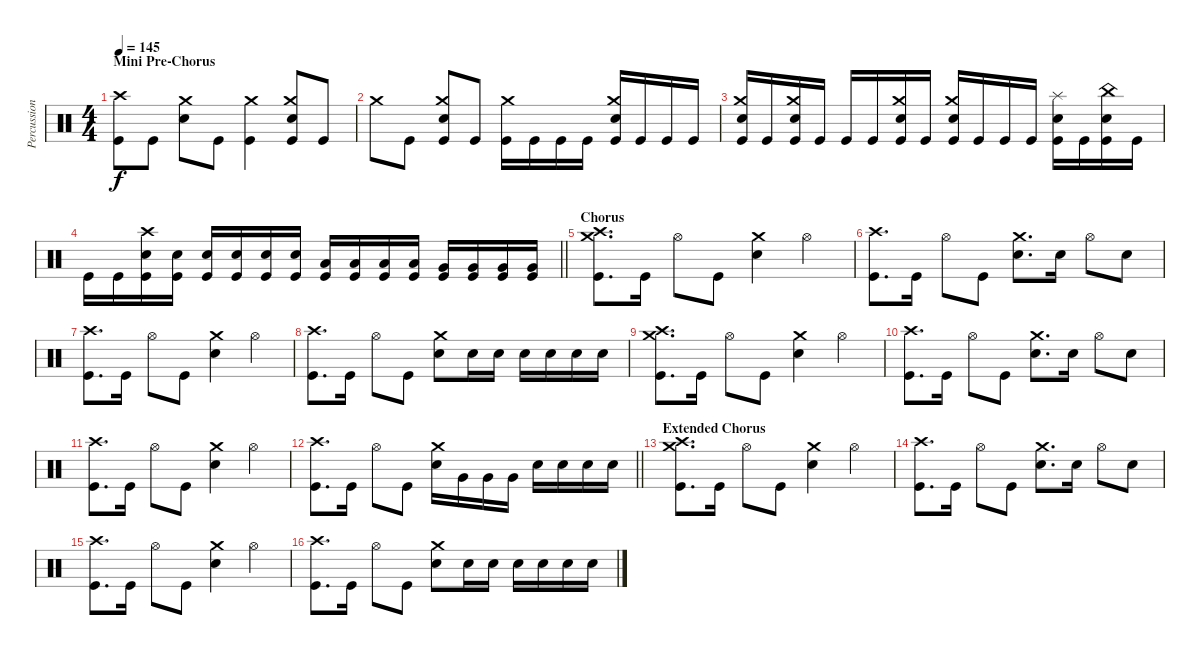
\track ("Percussion" "Percussion") {instrument percussion}
\staff {score}
\articulation defaults
\ts (4 4)
\section ("" "Mini Pre-Chorus")
\tempo 145
\clef neutral
\ks c
("Crash high (hit)" "Kick (hit)").8{dy f} "Kick (hit)".8 ("Crash medium (hit)" "Electric Snare (hit)").8 "Kick (hit)".8 ("Crash medium (hit)" "Kick (hit)").4 ("Crash medium (hit)" "Electric Snare (hit)" "Kick (hit)").8 "Kick (hit)".8 |
"Crash medium (hit)".8 "Kick (hit)".8 ("Crash medium (hit)" "Electric Snare (hit)" "Kick (hit)").8 "Kick (hit)".8 ("Crash medium (hit)" "Kick (hit)").16 "Kick (hit)".16 "Kick (hit)".16 "Kick (hit)".16 ("Crash medium (hit)" "Electric Snare (hit)" "Kick (hit)").16 "Kick (hit)".16 "Kick (hit)".16 "Kick (hit)".16 |
("Crash medium (hit)" "Electric Snare (hit)" "Kick (hit)").16 "Kick (hit)".16 ("Crash medium (hit)" "Electric Snare (hit)" "Kick (hit)").16 "Kick (hit)".16 "Kick (hit)".16 "Kick (hit)".16 ("Crash medium (hit)" "Electric Snare (hit)" "Kick (hit)").16 "Kick (hit)".16 ("Crash medium (hit)" "Electric Snare (hit)" "Kick (hit)").16 "Kick (hit)".16 "Kick (hit)".16 "Kick (hit)".16 ("Splash (hit)" "Electric Snare (hit)" "Kick (hit)").16 "Kick (hit)".16 ("China (hit)" "Electric Snare (hit)" "Kick (hit)").16 "Kick (hit)".16 |
\barLineRight lightlight "Kick (hit)".16 "Kick (hit)".16
("Crash high (hit)" "Electric Snare (hit)" "Kick (hit)").16 ("Electric Snare (hit)" "Kick (hit)").16 ("Electric Snare (hit)" "Kick (hit)").16 ("Electric Snare (hit)" "Kick (hit)").16 ("Electric Snare (hit)" "Kick (hit)").16 ("Electric Snare (hit)" "Kick (hit)").16 ("Low Tom (hit)" "Kick (hit)").16 ("Low Tom (hit)" "Kick (hit)").16 ("Low Tom (hit)" "Kick (hit)").16 ("Low Tom (hit)" "Kick (hit)").16 ("Very Low Tom (hit)" "Kick (hit)").16 ("Very Low Tom (hit)" "Kick (hit)").16 ("Very Low Tom (hit)" "Kick (hit)").16 ("Very Low Tom (hit)" "Kick (hit)").16 |
\section ("" "Chorus")
("Crash high (hit)" "Crash medium (hit)" "Kick (hit)").8{d} "Kick (hit)".16 "Hi-Hat (open)".8 "Kick (hit)".8 ("Crash medium (hit)" "Electric Snare (hit)").4 "Hi-Hat (open)".4 |
("Crash high (hit)" "Kick (hit)").8{d} "Kick (hit)".16 "Hi-Hat (open)".8 "Kick (hit)".8 ("Crash medium (hit)" "Electric Snare (hit)").8{d} "Electric Snare (hit)".16 "Hi-Hat (open)".8 "Electric Snare (hit)".8 |
("Crash high (hit)" "Kick (hit)").8{d} "Kick (hit)".16 "Hi-Hat (open)".8 "Kick (hit)".8 ("Crash medium (hit)" "Electric Snare (hit)").4 "Hi-Hat (open)".4 |
("Crash high (hit)" "Kick (hit)").8{d} "Kick (hit)".16 "Hi-Hat (open)".8 "Kick (hit)".8 ("Crash medium (hit)" "Electric Snare (hit)").8 "Electric Snare (hit)".16 "Electric Snare (hit)".16 "Electric Snare (hit)".16 "Electric Snare (hit)".16 "Electric Snare (hit)".16 "Electric Snare (hit)".16 |
("Crash high (hit)" "Crash medium (hit)" "Kick (hit)").8{d} "Kick (hit)".16 "Hi-Hat (open)".8 "Kick (hit)".8 ("Crash medium (hit)" "Electric Snare (hit)").4 "Hi-Hat (open)".4 |
("Crash high (hit)" "Kick (hit)").8{d} "Kick (hit)".16 "Hi-Hat (open)".8 "Kick (hit)".8 ("Crash medium (hit)" "Electric Snare (hit)").8{d} "Electric Snare (hit)".16 "Hi-Hat (open)".8 "Electric Snare (hit)".8 |
("Crash high (hit)" "Kick (hit)").8{d} "Kick (hit)".16 "Hi-Hat (open)".8 "Kick (hit)".8 ("Crash medium (hit)" "Electric Snare (hit)").4 "Hi-Hat (open)".4 |
\barLineRight lightlight
("Crash high (hit)" "Kick (hit)").8{d} "Kick (hit)".16 "Hi-Hat (open)".8 "Kick (hit)".8 ("Crash medium (hit)" "Electric Snare (hit)").16 "Very Low Tom (hit)".16 "Very Low Tom (hit)".16 "Very Low Tom (hit)".16 "Electric Snare (hit)".16 "Electric Snare (hit)".16 "Electric Snare (hit)".16 "Electric Snare (hit)".16 |
\section ("" "Extended Chorus")
("Crash high (hit)" "Crash medium (hit)" "Kick (hit)").8{d} "Kick (hit)".16 "Hi-Hat (open)".8 "Kick (hit)".8 ("Crash medium (hit)" "Electric Snare (hit)").4 "Hi-Hat (open)".4 |
("Crash high (hit)" "Kick (hit)").8{d} "Kick (hit)".16 "Hi-Hat (open)".8 "Kick (hit)".8 ("Crash medium (hit)" "Electric Snare (hit)").8{d} "Electric Snare (hit)".16 "Hi-Hat (open)".8 "Electric Snare (hit)".8 |
("Crash high (hit)" "Kick (hit)").8{d} "Kick (hit)".16 "Hi-Hat (open)".8 "Kick (hit)".8 ("Crash medium (hit)" "Electric Snare (hit)").4 "Hi-Hat (open)".4 |
("Crash high (hit)" "Kick (hit)").8{d} "Kick (hit)".16 "Hi-Hat (open)".8 "Kick (hit)".8 ("Crash medium (hit)" "Electric Snare (hit)").8 "Electric Snare (hit)".16 "Electric Snare (hit)".16 "Electric Snare (hit)".16 "Electric Snare (hit)".16 "Electric Snare (hit)".16 "Electric Snare (hit)".16
